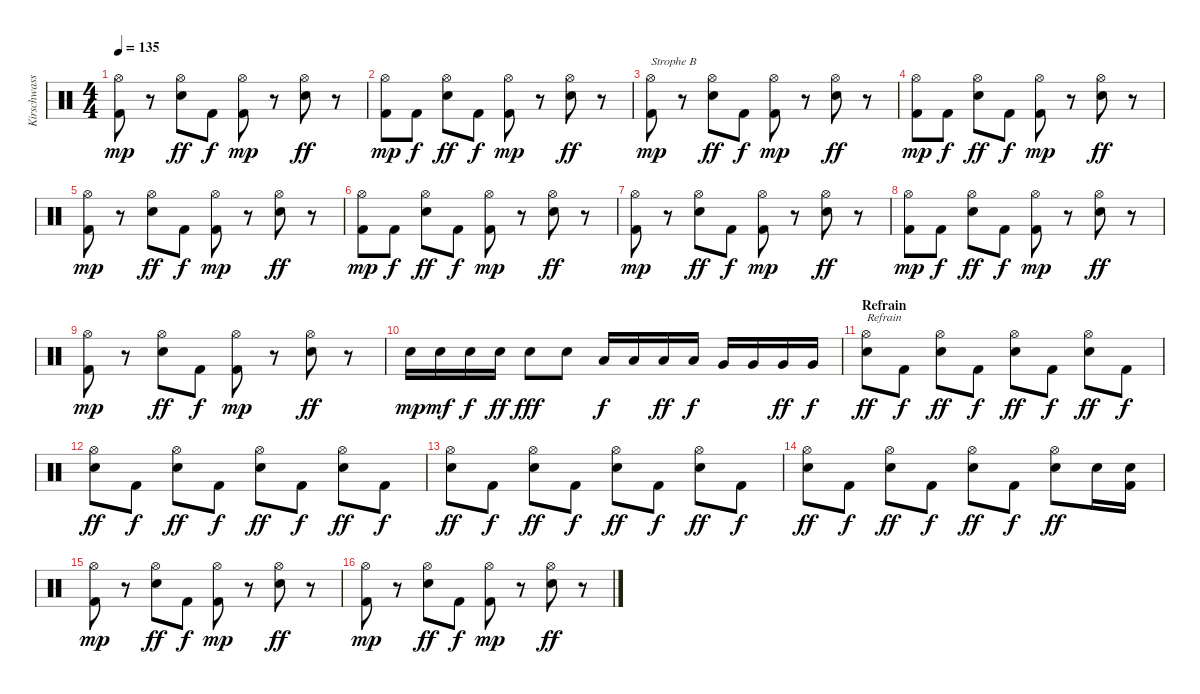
\track ("Kirschwasserkönig" "Kirschwass") {instrument percussion}
\staff {score}
\articulation defaults
\ts (4 4)
\tempo 135
\clef neutral
\ks c
("Hi-Hat (open)" "Kick (hit) 2").8{dy mp} r.8 ("Hi-Hat (open)" "Electric Snare (hit)").8{dy ff} "Kick (hit) 2".8{dy f} ("Hi-Hat (open)" "Kick (hit) 2").8{dy mp} r.8 ("Hi-Hat (open)" "Electric Snare (hit)").8{dy ff} r.8 |
("Hi-Hat (open)" "Kick (hit) 2").8{dy mp} "Kick (hit) 2".8{dy f} ("Hi-Hat (open)" "Electric Snare (hit)").8{dy ff} "Kick (hit) 2".8{dy f} ("Hi-Hat (open)" "Kick (hit) 2").8{dy mp} r.8 ("Hi-Hat (open)" "Electric Snare (hit)").8{dy ff} r.8 |
("Hi-Hat (open)" "Kick (hit) 2").8{txt "Strophe B" dy mp} r.8 ("Hi-Hat (open)" "Electric Snare (hit)").8{dy ff} "Kick (hit) 2".8{dy f} ("Hi-Hat (open)" "Kick (hit) 2").8{dy mp} r.8 ("Hi-Hat (open)" "Electric Snare (hit)").8{dy ff} r.8 |
("Hi-Hat (open)" "Kick (hit) 2").8{dy mp} "Kick (hit) 2".8{dy f} ("Hi-Hat (open)" "Electric Snare (hit)").8{dy ff} "Kick (hit) 2".8{dy f} ("Hi-Hat (open)" "Kick (hit) 2").8{dy mp} r.8 ("Hi-Hat (open)" "Electric Snare (hit)").8{dy ff} r.8 |
("Hi-Hat (open)" "Kick (hit) 2").8{dy mp} r.8 ("Hi-Hat (open)" "Electric Snare (hit)").8{dy ff} "Kick (hit) 2".8{dy f} ("Hi-Hat (open)" "Kick (hit) 2").8{dy mp} r.8 ("Hi-Hat (open)" "Electric Snare (hit)").8{dy ff} r.8 |
("Hi-Hat (open)" "Kick (hit) 2").8{dy mp} "Kick (hit) 2".8{dy f} ("Hi-Hat (open)" "Electric Snare (hit)").8{dy ff} "Kick (hit) 2".8{dy f} ("Hi-Hat (open)" "Kick (hit) 2").8{dy mp} r.8 ("Hi-Hat (open)" "Electric Snare (hit)").8{dy ff} r.8 |
("Hi-Hat (open)" "Kick (hit) 2").8{dy mp} r.8 ("Hi-Hat (open)" "Electric Snare (hit)").8{dy ff} "Kick (hit) 2".8{dy f} ("Hi-Hat (open)" "Kick (hit) 2").8{dy mp} r.8 ("Hi-Hat (open)" "Electric Snare (hit)").8{dy ff} r.8 |
("Hi-Hat (open)" "Kick (hit) 2").8{dy mp} "Kick (hit) 2".8{dy f} ("Hi-Hat (open)" "Electric Snare (hit)").8{dy ff} "Kick (hit) 2".8{dy f} ("Hi-Hat (open)" "Kick (hit) 2").8{dy mp} r.8 ("Hi-Hat (open)" "Electric Snare (hit)").8{dy ff} r.8 |
("Hi-Hat (open)" "Kick (hit) 2").8{dy mp} r.8 ("Hi-Hat (open)" "Electric Snare (hit)").8{dy ff} "Kick (hit) 2".8{dy f} ("Hi-Hat (open)" "Kick (hit) 2").8{dy mp} r.8 ("Hi-Hat (open)" "Electric Snare (hit)").8{dy ff} r.8 |
"Electric Snare (hit)".16{dy mp} "Electric Snare (hit)".16{dy mf} "Electric Snare (hit)".16{dy f} "Electric Snare (hit)".16{dy ff} "Electric Snare (hit)".8{dy fff} "Electric Snare (hit)".8 "Low Tom (hit)".16{dy f} "Low Tom (hit)".16 "Low Tom (hit)".16{dy ff} "Low Tom (hit)".16{dy f} "Very Low Tom (hit)".16 "Very Low Tom (hit)".16 "Very Low Tom (hit)".16{dy ff} "Very Low Tom (hit)".16{dy f} |
\section ("" "Refrain")
("Hi-Hat (open)" "Electric Snare (hit)").8{txt "Refrain" dy ff} "Kick (hit) 2".8{dy f} ("Hi-Hat (open)" "Electric Snare (hit)").8{dy ff} "Kick (hit) 2".8{dy f} ("Hi-Hat (open)" "Electric Snare (hit)").8{dy ff} "Kick (hit) 2".8{dy f} ("Hi-Hat (open)" "Electric Snare (hit)").8{dy ff} "Kick (hit) 2".8{dy f} |
("Hi-Hat (open)" "Electric Snare (hit)").8{dy ff} "Kick (hit) 2".8{dy f} ("Hi-Hat (open)" "Electric Snare (hit)").8{dy ff} "Kick (hit) 2".8{dy f} ("Hi-Hat (open)" "Electric Snare (hit)").8{dy ff} "Kick (hit) 2".8{dy f} ("Hi-Hat (open)" "Electric Snare (hit)").8{dy ff} "Kick (hit) 2".8{dy f} |
("Hi-Hat (open)" "Electric Snare (hit)").8{dy ff} "Kick (hit) 2".8{dy f} ("Hi-Hat (open)" "Electric Snare (hit)").8{dy ff} "Kick (hit) 2".8{dy f} ("Hi-Hat (open)" "Electric Snare (hit)").8{dy ff} "Kick (hit) 2".8{dy f} ("Hi-Hat (open)" "Electric Snare (hit)").8{dy ff} "Kick (hit) 2".8{dy f} |
("Hi-Hat (open)" "Electric Snare (hit)").8{dy ff} "Kick (hit) 2".8{dy f} ("Hi-Hat (open)" "Electric Snare (hit)").8{dy ff} "Kick (hit) 2".8{dy f} ("Hi-Hat (open)" "Electric Snare (hit)").8{dy ff} "Kick (hit) 2".8{dy f} ("Hi-Hat (open)" "Electric Snare (hit)").8{dy ff} "Electric Snare (hit)".16 ("Kick (hit) 2" "Electric Snare (hit)").16 |
("Hi-Hat (open)" "Kick (hit) 2").8{dy mp} r.8 ("Hi-Hat (open)" "Electric Snare (hit)").8{dy ff} "Kick (hit) 2".8{dy f} ("Hi-Hat (open)" "Kick (hit) 2").8{dy mp} r.8 ("Hi-Hat (open)" "Electric Snare (hit)").8{dy ff} r.8 |
("Hi-Hat (open)" "Kick (hit) 2").8{dy mp} r.8 ("Hi-Hat (open)" "Electric Snare (hit)").8{dy ff} "Kick (hit) 2".8{dy f} ("Hi-Hat (open)" "Kick (hit) 2").8{dy mp} r.8 ("Hi-Hat (open)" "Electric Snare (hit)").8{dy ff} r.8
